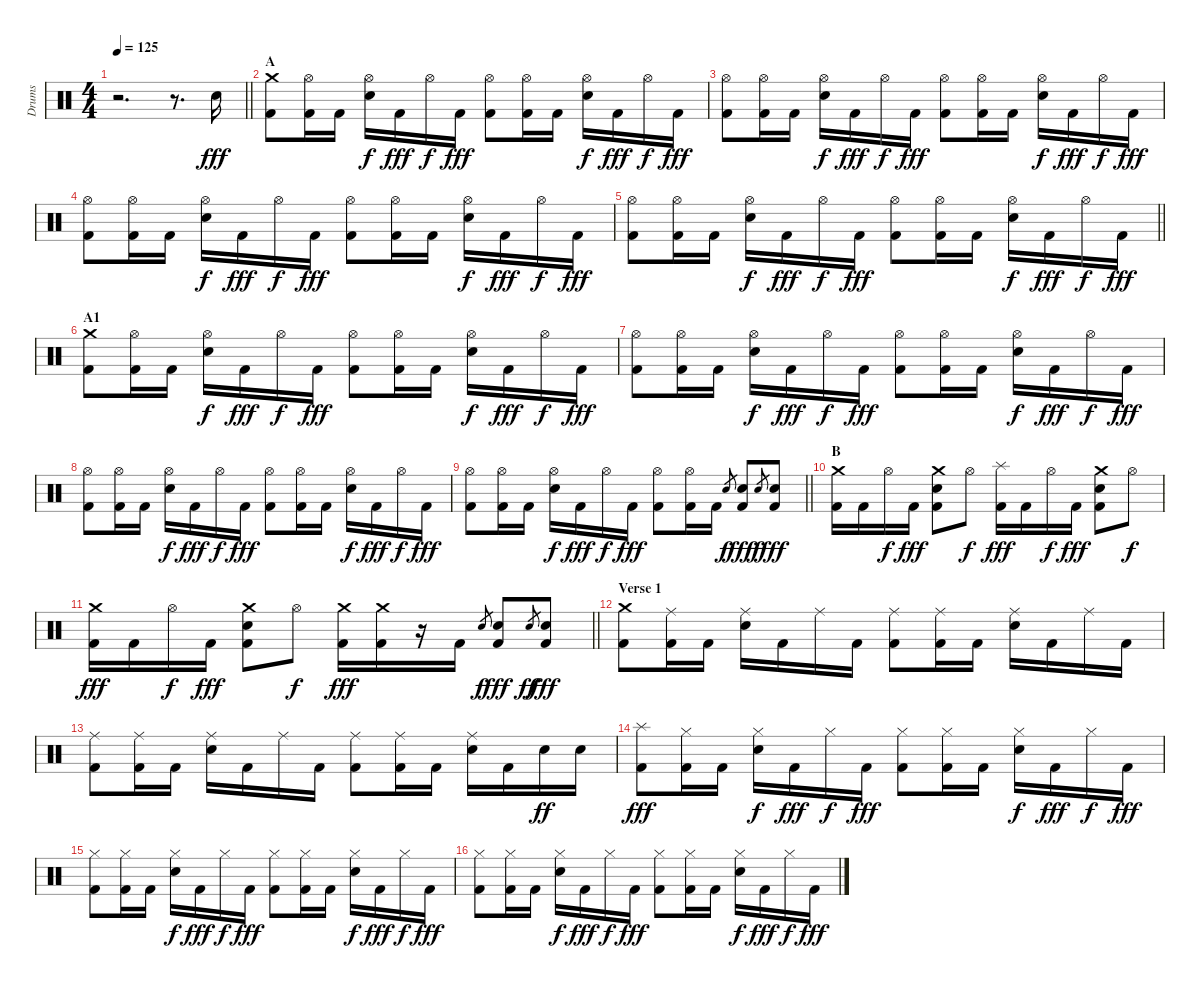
\track ("Drums" "Drums") {instrument percussion}
\staff {score}
\articulation defaults
\ts (4 4)
\tempo 125
\clef neutral
\barLineRight lightlight
\ks c
r.2{d dy fff} r.8{d} "Electric Snare (hit)".16 |
\section ("" "A")
("Crash medium (hit)" "Kick (hit) 2").8 ("Hi-Hat (open)" "Kick (hit) 2").16 "Kick (hit) 2".16 ("Hi-Hat (open)" "Electric Snare (hit)").16{dy f} "Kick (hit) 2".16{dy fff} "Hi-Hat (open)".16{dy f} "Kick (hit) 2".16{dy fff} ("Hi-Hat (open)" "Kick (hit) 2").8 ("Hi-Hat (open)" "Kick (hit) 2").16 "Kick (hit) 2".16 ("Hi-Hat (open)" "Electric Snare (hit)").16{dy f} "Kick (hit) 2".16{dy fff} "Hi-Hat (open)".16{dy f} "Kick (hit) 2".16{dy fff} |
("Hi-Hat (open)" "Kick (hit) 2").8 ("Hi-Hat (open)" "Kick (hit) 2").16 "Kick (hit) 2".16 ("Hi-Hat (open)" "Electric Snare (hit)").16{dy f} "Kick (hit) 2".16{dy fff} "Hi-Hat (open)".16{dy f} "Kick (hit) 2".16{dy fff} ("Hi-Hat (open)" "Kick (hit) 2").8 ("Hi-Hat (open)" "Kick (hit) 2").16 "Kick (hit) 2".16 ("Hi-Hat (open)" "Electric Snare (hit)").16{dy f} "Kick (hit) 2".16{dy fff} "Hi-Hat (open)".16{dy f} "Kick (hit) 2".16{dy fff} |
("Hi-Hat (open)" "Kick (hit) 2").8 ("Hi-Hat (open)" "Kick (hit) 2").16 "Kick (hit) 2".16 ("Hi-Hat (open)" "Electric Snare (hit)").16{dy f} "Kick (hit) 2".16{dy fff} "Hi-Hat (open)".16{dy f} "Kick (hit) 2".16{dy fff} ("Hi-Hat (open)" "Kick (hit) 2").8 ("Hi-Hat (open)" "Kick (hit) 2").16 "Kick (hit) 2".16 ("Hi-Hat (open)" "Electric Snare (hit)").16{dy f} "Kick (hit) 2".16{dy fff} "Hi-Hat (open)".16{dy f} "Kick (hit) 2".16{dy fff} |
\barLineRight lightlight
("Hi-Hat (open)" "Kick (hit) 2").8 ("Hi-Hat (open)" "Kick (hit) 2").16 "Kick (hit) 2".16 ("Hi-Hat (open)" "Electric Snare (hit)").16{dy f} "Kick (hit) 2".16{dy fff} "Hi-Hat (open)".16{dy f} "Kick (hit) 2".16{dy fff} ("Hi-Hat (open)" "Kick (hit) 2").8 ("Hi-Hat (open)" "Kick (hit) 2").16 "Kick (hit) 2".16 ("Hi-Hat (open)" "Electric Snare (hit)").16{dy f} "Kick (hit) 2".16{dy fff} "Hi-Hat (open)".16{dy f} "Kick (hit) 2".16{dy fff} |
\section ("" "A1")
("Crash medium (hit)" "Kick (hit) 2").8 ("Hi-Hat (open)" "Kick (hit) 2").16 "Kick (hit) 2".16 ("Hi-Hat (open)" "Electric Snare (hit)").16{dy f} "Kick (hit) 2".16{dy fff} "Hi-Hat (open)".16{dy f} "Kick (hit) 2".16{dy fff} ("Hi-Hat (open)" "Kick (hit) 2").8 ("Hi-Hat (open)" "Kick (hit) 2").16 "Kick (hit) 2".16 ("Hi-Hat (open)" "Electric Snare (hit)").16{dy f} "Kick (hit) 2".16{dy fff} "Hi-Hat (open)".16{dy f} "Kick (hit) 2".16{dy fff} |
("Hi-Hat (open)" "Kick (hit) 2").8 ("Hi-Hat (open)" "Kick (hit) 2").16 "Kick (hit) 2".16 ("Hi-Hat (open)" "Electric Snare (hit)").16{dy f} "Kick (hit) 2".16{dy fff} "Hi-Hat (open)".16{dy f} "Kick (hit) 2".16{dy fff} ("Hi-Hat (open)" "Kick (hit) 2").8 ("Hi-Hat (open)" "Kick (hit) 2").16 "Kick (hit) 2".16 ("Hi-Hat (open)" "Electric Snare (hit)").16{dy f} "Kick (hit) 2".16{dy fff} "Hi-Hat (open)".16{dy f} "Kick (hit) 2".16{dy fff} |
("Hi-Hat (open)" "Kick (hit) 2").8 ("Hi-Hat (open)" "Kick (hit) 2").16 "Kick (hit) 2".16 ("Hi-Hat (open)" "Electric Snare (hit)").16{dy f} "Kick (hit) 2".16{dy fff} "Hi-Hat (open)".16{dy f} "Kick (hit) 2".16{dy fff} ("Hi-Hat (open)" "Kick (hit) 2").8 ("Hi-Hat (open)" "Kick (hit) 2").16 "Kick (hit) 2".16 ("Hi-Hat (open)" "Electric Snare (hit)").16{dy f} "Kick (hit) 2".16{dy fff} "Hi-Hat (open)".16{dy f} "Kick (hit) 2".16{dy fff} |
\barLineRight lightlight
("Hi-Hat (open)" "Kick (hit) 2").8 ("Hi-Hat (open)" "Kick (hit) 2").16 "Kick (hit) 2".16 ("Hi-Hat (open)" "Electric Snare (hit)").16{dy f} "Kick (hit) 2".16{dy fff} "Hi-Hat (open)".16{dy f} "Kick (hit) 2".16{dy fff} ("Hi-Hat (open)" "Kick (hit) 2").8 ("Hi-Hat (open)" "Kick (hit) 2").16 "Kick (hit) 2".16 "Electric Snare (hit)".8{gr dy f} ("Electric Snare (hit)" "Kick (hit) 2").8{dy fff} "Electric Snare (hit)".8{gr dy f} ("Electric Snare (hit)" "Kick (hit) 2").8{dy fff} |
\section ("" "B")
("Crash medium (hit)" "Kick (hit) 2").16 "Kick (hit) 2".16 "Hi-Hat (open)".16{dy f} "Kick (hit) 2".16{dy fff} ("Crash medium (hit)" "Electric Snare (hit)" "Kick (hit) 2").8 "Hi-Hat (open)".8{dy f} ("Splash (hit)" "Kick (hit) 2").16{dy fff} "Kick (hit) 2".16 "Hi-Hat (open)".16{dy f} "Kick (hit) 2".16{dy fff} ("Crash medium (hit)" "Electric Snare (hit)" "Kick (hit) 2").8 "Hi-Hat (open)".8{dy f} |
\barLineRight lightlight
("Crash medium (hit)" "Kick (hit) 2").16{dy fff} "Kick (hit) 2".16 "Hi-Hat (open)".16{dy f} "Kick (hit) 2".16{dy fff} ("Crash medium (hit)" "Electric Snare (hit)" "Kick (hit) 2").8 "Hi-Hat (open)".8{dy f} ("Crash medium (hit)" "Kick (hit) 2").16{dy fff} ("Crash medium (hit)" "Kick (hit) 2").16 r.16 "Kick (hit) 2".16 "Electric Snare (hit)".8{gr dy f} ("Electric Snare (hit)" "Kick (hit) 2").8{dy fff} "Electric Snare (hit)".8{gr dy ff} ("Electric Snare (hit)" "Kick (hit) 2").8{dy fff} |
\section ("" "Verse 1")
("Crash medium (hit)" "Kick (hit) 2").8 ("Ride (middle)" "Kick (hit) 2").16 "Kick (hit) 2".16 ("Ride (middle)" "Electric Snare (hit)").16 "Kick (hit) 2".16 "Ride (middle)".16 "Kick (hit) 2".16 ("Ride (middle)" "Kick (hit) 2").8 ("Ride (middle)" "Kick (hit) 2").16 "Kick (hit) 2".16 ("Ride (middle)" "Electric Snare (hit)").16 "Kick (hit) 2".16 "Ride (middle)".16 "Kick (hit) 2".16 |
("Ride (middle)" "Kick (hit) 2").8 ("Ride (middle)" "Kick (hit) 2").16 "Kick (hit) 2".16 ("Ride (middle)" "Electric Snare (hit)").16 "Kick (hit) 2".16 "Ride (middle)".16 "Kick (hit) 2".16 ("Ride (middle)" "Kick (hit) 2").8 ("Ride (middle)" "Kick (hit) 2").16 "Kick (hit) 2".16 ("Ride (middle)" "Electric Snare (hit)").16 "Kick (hit) 2".16 "Electric Snare (hit)".16{dy ff} "Electric Snare (hit)".16 |
("Splash (hit)" "Kick (hit) 2").8{dy fff} ("Hi-Hat (closed)" "Kick (hit) 2").16 "Kick (hit) 2".16 ("Hi-Hat (closed)" "Electric Snare (hit)").16{dy f} "Kick (hit) 2".16{dy fff} "Hi-Hat (closed)".16{dy f} "Kick (hit) 2".16{dy fff} ("Hi-Hat (closed)" "Kick (hit) 2").8 ("Hi-Hat (closed)" "Kick (hit) 2").16 "Kick (hit) 2".16 ("Hi-Hat (closed)" "Electric Snare (hit)").16{dy f} "Kick (hit) 2".16{dy fff} "Hi-Hat (closed)".16{dy f} "Kick (hit) 2".16{dy fff} |
("Hi-Hat (closed)" "Kick (hit) 2").8 ("Hi-Hat (closed)" "Kick (hit) 2").16 "Kick (hit) 2".16 ("Hi-Hat (closed)" "Electric Snare (hit)").16{dy f} "Kick (hit) 2".16{dy fff} "Hi-Hat (closed)".16{dy f} "Kick (hit) 2".16{dy fff} ("Hi-Hat (closed)" "Kick (hit) 2").8 ("Hi-Hat (closed)" "Kick (hit) 2").16 "Kick (hit) 2".16 ("Hi-Hat (closed)" "Electric Snare (hit)").16{dy f} "Kick (hit) 2".16{dy fff} "Hi-Hat (closed)".16{dy f} "Kick (hit) 2".16{dy fff} |
("Hi-Hat (closed)" "Kick (hit) 2").8 ("Hi-Hat (closed)" "Kick (hit) 2").16 "Kick (hit) 2".16 ("Hi-Hat (closed)" "Electric Snare (hit)").16{dy f} "Kick (hit) 2".16{dy fff} "Hi-Hat (closed)".16{dy f} "Kick (hit) 2".16{dy fff} ("Hi-Hat (closed)" "Kick (hit) 2").8 ("Hi-Hat (closed)" "Kick (hit) 2").16 "Kick (hit) 2".16 ("Hi-Hat (closed)" "Electric Snare (hit)").16{dy f} "Kick (hit) 2".16{dy fff} "Hi-Hat (closed)".16{dy f} "Kick (hit) 2".16{dy fff}
